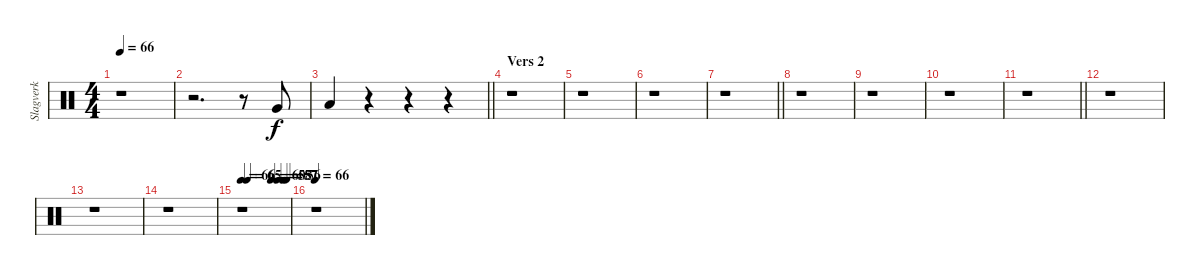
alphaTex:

\track ("Slagverk" "Slagverk") {instrument percussion}
\staff {score}
\articulation defaults
\ts (4 4)
\tempo 66
\clef neutral
\ks c
r.1{dy f} |
r.2{d} r.8 "Very Low Tom (hit)".8 |
\barLineRight lightlight "Low Floor Tom (hit)".4
r.4 r.4 r.4 |
\section ("" "Vers 2")
r.1 |
r.1 |
r.1 |
\barLineRight lightlight
r.1 |
r.1 |
r.1 |
r.1 |
\barLineRight lightlight
r.1 |
r.1 |
r.1 |
r.1 |
\tempo 66
\tempo (65 0.125)
\tempo (60 0.625)
\tempo (58 0.75)
\tempo (57 0.875)
\tempo (56 0.9375)
r.1 |
\tempo 66
r.1
